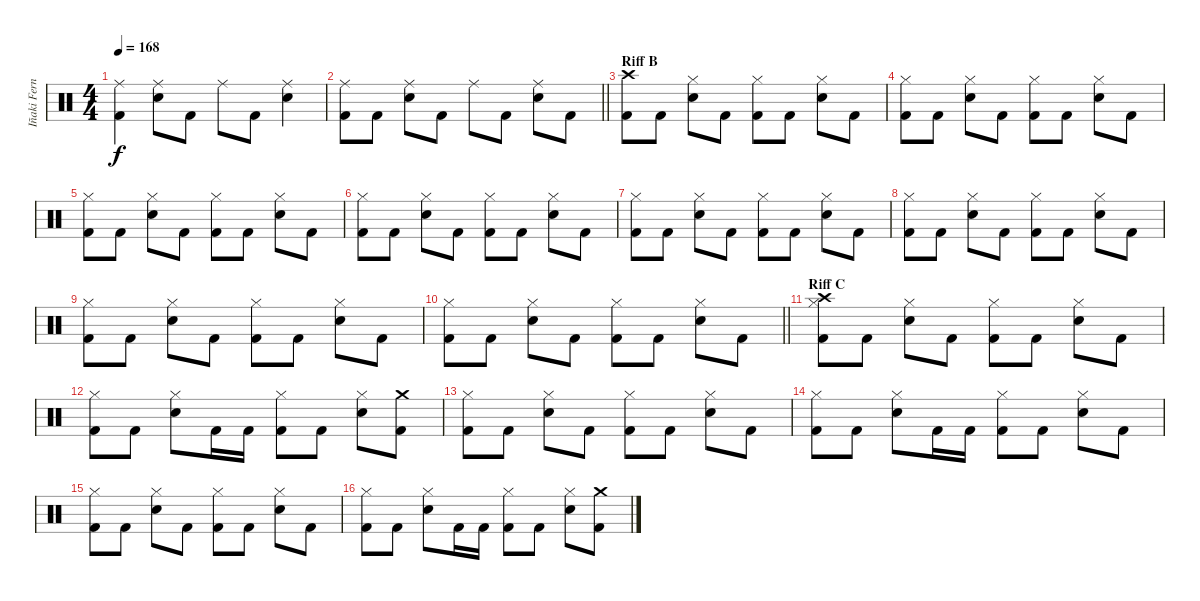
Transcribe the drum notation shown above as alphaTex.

\track ("Iñaki Fernández" "Iñaki Fern") {instrument percussion}
\staff {score}
\articulation defaults
\ts (4 4)
\tempo 168
\clef neutral
\ks c
("Ride (middle)" "Kick (hit) 2").4{dy f} ("Ride (middle)" "Snare (hit) 2").8 "Kick (hit) 2".8 "Ride (middle)".8 "Kick (hit) 2".8 ("Ride (middle)" "Snare (hit) 2").4 |
\barLineRight lightlight
("Ride (middle)" "Kick (hit) 2").8 "Kick (hit) 2".8 ("Ride (middle)" "Snare (hit) 2").8 "Kick (hit) 2".8 "Ride (middle)".8 "Kick (hit) 2".8 ("Ride (middle)" "Snare (hit) 2").8 "Kick (hit) 2".8 |
\section ("" "Riff B")
("Crash high (hit)" "Kick (hit) 2").8 "Kick (hit) 2".8 ("Hi-Hat (closed)" "Snare (hit) 2").8 "Kick (hit) 2".8 ("Hi-Hat (closed)" "Kick (hit) 2").8 "Kick (hit) 2".8 ("Hi-Hat (closed)" "Snare (hit) 2").8 "Kick (hit) 2".8 |
("Hi-Hat (closed)" "Kick (hit) 2").8 "Kick (hit) 2".8 ("Hi-Hat (closed)" "Snare (hit) 2").8 "Kick (hit) 2".8 ("Hi-Hat (closed)" "Kick (hit) 2").8 "Kick (hit) 2".8 ("Hi-Hat (closed)" "Snare (hit) 2").8 "Kick (hit) 2".8 |
("Hi-Hat (closed)" "Kick (hit) 2").8 "Kick (hit) 2".8 ("Hi-Hat (closed)" "Snare (hit) 2").8 "Kick (hit) 2".8 ("Hi-Hat (closed)" "Kick (hit) 2").8 "Kick (hit) 2".8 ("Hi-Hat (closed)" "Snare (hit) 2").8 "Kick (hit) 2".8 |
("Hi-Hat (closed)" "Kick (hit) 2").8 "Kick (hit) 2".8 ("Hi-Hat (closed)" "Snare (hit) 2").8 "Kick (hit) 2".8 ("Hi-Hat (closed)" "Kick (hit) 2").8 "Kick (hit) 2".8 ("Hi-Hat (closed)" "Snare (hit) 2").8 "Kick (hit) 2".8 |
("Hi-Hat (closed)" "Kick (hit) 2").8 "Kick (hit) 2".8 ("Hi-Hat (closed)" "Snare (hit) 2").8 "Kick (hit) 2".8 ("Hi-Hat (closed)" "Kick (hit) 2").8 "Kick (hit) 2".8 ("Hi-Hat (closed)" "Snare (hit) 2").8 "Kick (hit) 2".8 |
("Hi-Hat (closed)" "Kick (hit) 2").8 "Kick (hit) 2".8 ("Hi-Hat (closed)" "Snare (hit) 2").8 "Kick (hit) 2".8 ("Hi-Hat (closed)" "Kick (hit) 2").8 "Kick (hit) 2".8 ("Hi-Hat (closed)" "Snare (hit) 2").8 "Kick (hit) 2".8 |
("Hi-Hat (closed)" "Kick (hit) 2").8 "Kick (hit) 2".8 ("Hi-Hat (closed)" "Snare (hit) 2").8 "Kick (hit) 2".8 ("Hi-Hat (closed)" "Kick (hit) 2").8 "Kick (hit) 2".8 ("Hi-Hat (closed)" "Snare (hit) 2").8 "Kick (hit) 2".8 |
\barLineRight lightlight
("Hi-Hat (closed)" "Kick (hit) 2").8 "Kick (hit) 2".8 ("Hi-Hat (closed)" "Snare (hit) 2").8 "Kick (hit) 2".8 ("Hi-Hat (closed)" "Kick (hit) 2").8 "Kick (hit) 2".8 ("Hi-Hat (closed)" "Snare (hit) 2").8 "Kick (hit) 2".8 |
\section ("" "Riff C")
("Hi-Hat (closed)" "Crash high (hit)" "Kick (hit) 2").8 "Kick (hit) 2".8 ("Hi-Hat (closed)" "Snare (hit) 2").8 "Kick (hit) 2".8 ("Hi-Hat (closed)" "Kick (hit) 2").8 "Kick (hit) 2".8 ("Hi-Hat (closed)" "Snare (hit) 2").8 "Kick (hit) 2".8 |
("Hi-Hat (closed)" "Kick (hit) 2").8 "Kick (hit) 2".8 ("Hi-Hat (closed)" "Snare (hit) 2").8 "Kick (hit) 2".16 "Kick (hit) 2".16 ("Hi-Hat (closed)" "Kick (hit) 2").8 "Kick (hit) 2".8 ("Hi-Hat (closed)" "Snare (hit) 2").8 ("Crash medium (hit)" "Kick (hit) 2").8 |
("Hi-Hat (closed)" "Kick (hit) 2").8 "Kick (hit) 2".8 ("Hi-Hat (closed)" "Snare (hit) 2").8 "Kick (hit) 2".8 ("Hi-Hat (closed)" "Kick (hit) 2").8 "Kick (hit) 2".8 ("Hi-Hat (closed)" "Snare (hit) 2").8 "Kick (hit) 2".8 |
("Hi-Hat (closed)" "Kick (hit) 2").8 "Kick (hit) 2".8 ("Hi-Hat (closed)" "Snare (hit) 2").8 "Kick (hit) 2".16 "Kick (hit) 2".16 ("Hi-Hat (closed)" "Kick (hit) 2").8 "Kick (hit) 2".8 ("Hi-Hat (closed)" "Snare (hit) 2").8 "Kick (hit) 2".8 |
("Hi-Hat (closed)" "Kick (hit) 2").8 "Kick (hit) 2".8 ("Hi-Hat (closed)" "Snare (hit) 2").8 "Kick (hit) 2".8 ("Hi-Hat (closed)" "Kick (hit) 2").8 "Kick (hit) 2".8 ("Hi-Hat (closed)" "Snare (hit) 2").8 "Kick (hit) 2".8 |
("Hi-Hat (closed)" "Kick (hit) 2").8 "Kick (hit) 2".8 ("Hi-Hat (closed)" "Snare (hit) 2").8 "Kick (hit) 2".16 "Kick (hit) 2".16 ("Hi-Hat (closed)" "Kick (hit) 2").8 "Kick (hit) 2".8 ("Hi-Hat (closed)" "Snare (hit) 2").8 ("Crash medium (hit)" "Kick (hit) 2").8
